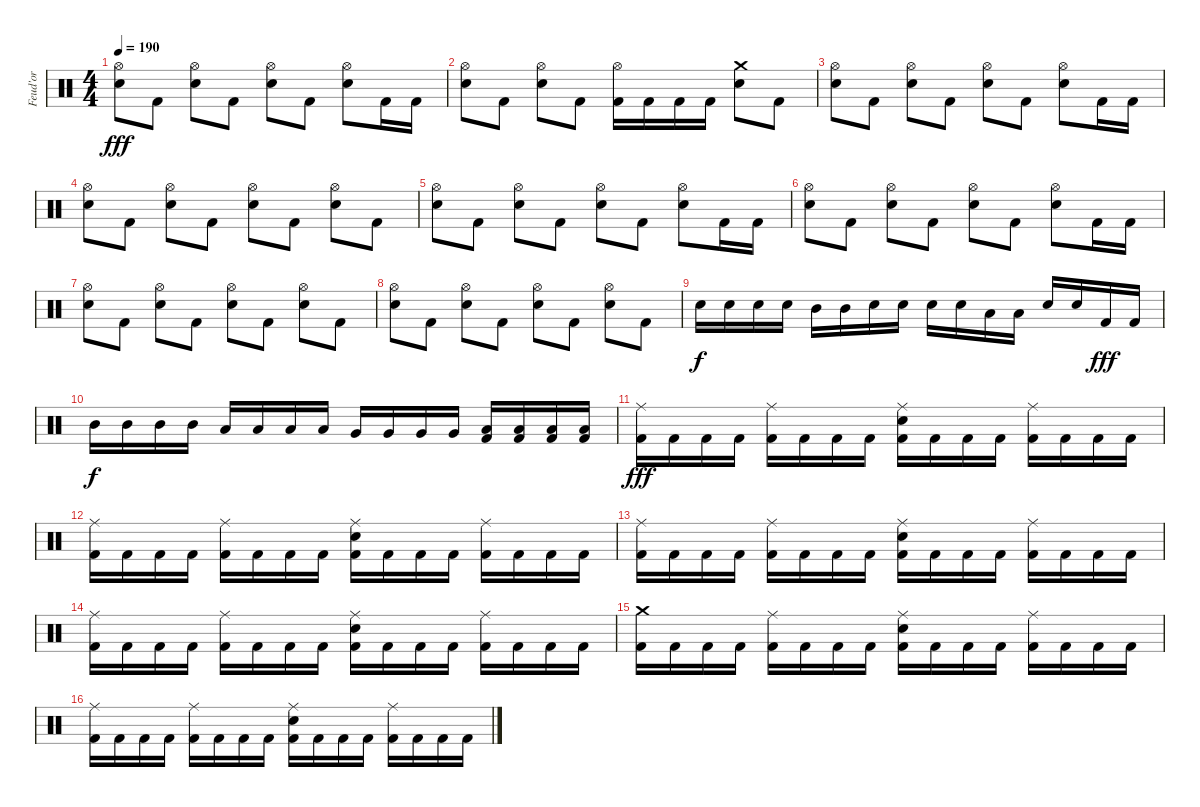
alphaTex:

\track ("Feud'or" "Feud'or") {instrument percussion}
\staff {score}
\articulation defaults
\ts (4 4)
\tempo 190
\clef neutral
\ks c
("Hi-Hat (open)" "Snare (hit) 2").8{dy fff} "Kick (hit) 2".8 ("Hi-Hat (open)" "Snare (hit) 2").8 "Kick (hit) 2".8 ("Hi-Hat (open)" "Snare (hit) 2").8 "Kick (hit) 2".8 ("Hi-Hat (open)" "Snare (hit) 2").8 "Kick (hit) 2".16 "Kick (hit) 2".16 |
("Hi-Hat (open)" "Snare (hit) 2").8 "Kick (hit) 2".8 ("Hi-Hat (open)" "Snare (hit) 2").8 "Kick (hit) 2".8 ("Hi-Hat (open)" "Kick (hit) 2").16 "Kick (hit) 2".16 "Kick (hit) 2".16 "Kick (hit) 2".16 ("Crash medium (hit)" "Snare (hit) 2").8 "Kick (hit) 2".8 |
("Hi-Hat (open)" "Snare (hit) 2").8 "Kick (hit) 2".8 ("Hi-Hat (open)" "Snare (hit) 2").8 "Kick (hit) 2".8 ("Hi-Hat (open)" "Snare (hit) 2").8 "Kick (hit) 2".8 ("Hi-Hat (open)" "Snare (hit) 2").8 "Kick (hit) 2".16 "Kick (hit) 2".16 |
("Hi-Hat (open)" "Snare (hit) 2").8 "Kick (hit) 2".8 ("Hi-Hat (open)" "Snare (hit) 2").8 "Kick (hit) 2".8 ("Hi-Hat (open)" "Snare (hit) 2").8 "Kick (hit) 2".8 ("Hi-Hat (open)" "Snare (hit) 2").8 "Kick (hit) 2".8 |
("Hi-Hat (open)" "Snare (hit) 2").8 "Kick (hit) 2".8 ("Hi-Hat (open)" "Snare (hit) 2").8 "Kick (hit) 2".8 ("Hi-Hat (open)" "Snare (hit) 2").8 "Kick (hit) 2".8 ("Hi-Hat (open)" "Snare (hit) 2").8 "Kick (hit) 2".16 "Kick (hit) 2".16 |
("Hi-Hat (open)" "Snare (hit) 2").8 "Kick (hit) 2".8 ("Hi-Hat (open)" "Snare (hit) 2").8 "Kick (hit) 2".8 ("Hi-Hat (open)" "Snare (hit) 2").8 "Kick (hit) 2".8 ("Hi-Hat (open)" "Snare (hit) 2").8 "Kick (hit) 2".16 "Kick (hit) 2".16 |
("Hi-Hat (open)" "Snare (hit) 2").8 "Kick (hit) 2".8 ("Hi-Hat (open)" "Snare (hit) 2").8 "Kick (hit) 2".8 ("Hi-Hat (open)" "Snare (hit) 2").8 "Kick (hit) 2".8 ("Hi-Hat (open)" "Snare (hit) 2").8 "Kick (hit) 2".8 |
("Hi-Hat (open)" "Snare (hit) 2").8 "Kick (hit) 2".8 ("Hi-Hat (open)" "Snare (hit) 2").8 "Kick (hit) 2".8 ("Hi-Hat (open)" "Snare (hit) 2").8 "Kick (hit) 2".8 ("Hi-Hat (open)" "Snare (hit) 2").8 "Kick (hit) 2".8 |
"Snare (hit) 2".16{dy f} "Snare (hit) 2".16 "Snare (hit) 2".16 "Snare (hit) 2".16 "Mid Tom (hit)".16 "Mid Tom (hit)".16 "Snare (hit) 2".16 "Snare (hit) 2".16 "Snare (hit) 2".16 "Snare (hit) 2".16 "Low Tom (hit)".16 "Low Tom (hit)".16 "Snare (hit) 2".16 "Snare (hit) 2".16 "Kick (hit) 2".16{dy fff} "Kick (hit) 2".16 |
"Mid Tom (hit)".16{dy f} "Mid Tom (hit)".16 "Mid Tom (hit)".16 "Mid Tom (hit)".16 "Low Tom (hit)".16 "Low Tom (hit)".16 "Low Tom (hit)".16 "Low Tom (hit)".16 "Very Low Tom (hit)".16 "Very Low Tom (hit)".16 "Very Low Tom (hit)".16 "Very Low Tom (hit)".16 ("Low Floor Tom (hit)" "Kick (hit) 2").16 ("Low Floor Tom (hit)" "Kick (hit) 2").16 ("Low Floor Tom (hit)" "Kick (hit) 2").16 ("Low Floor Tom (hit)" "Kick (hit) 2").16 |
("Ride (middle)" "Kick (hit) 2").16{dy fff} "Kick (hit) 2".16 "Kick (hit) 2".16 "Kick (hit) 2".16 ("Ride (middle)" "Kick (hit) 2").16 "Kick (hit) 2".16 "Kick (hit) 2".16 "Kick (hit) 2".16 ("Ride (middle)" "Snare (hit) 2" "Kick (hit) 2").16 "Kick (hit) 2".16 "Kick (hit) 2".16 "Kick (hit) 2".16 ("Ride (middle)" "Kick (hit) 2").16 "Kick (hit) 2".16 "Kick (hit) 2".16 "Kick (hit) 2".16 |
("Ride (middle)" "Kick (hit) 2").16 "Kick (hit) 2".16 "Kick (hit) 2".16 "Kick (hit) 2".16 ("Ride (middle)" "Kick (hit) 2").16 "Kick (hit) 2".16 "Kick (hit) 2".16 "Kick (hit) 2".16 ("Ride (middle)" "Snare (hit) 2" "Kick (hit) 2").16 "Kick (hit) 2".16 "Kick (hit) 2".16 "Kick (hit) 2".16 ("Ride (middle)" "Kick (hit) 2").16 "Kick (hit) 2".16 "Kick (hit) 2".16 "Kick (hit) 2".16 |
("Ride (middle)" "Kick (hit) 2").16 "Kick (hit) 2".16 "Kick (hit) 2".16 "Kick (hit) 2".16 ("Ride (middle)" "Kick (hit) 2").16 "Kick (hit) 2".16 "Kick (hit) 2".16 "Kick (hit) 2".16 ("Ride (middle)" "Snare (hit) 2" "Kick (hit) 2").16 "Kick (hit) 2".16 "Kick (hit) 2".16 "Kick (hit) 2".16 ("Ride (middle)" "Kick (hit) 2").16 "Kick (hit) 2".16 "Kick (hit) 2".16 "Kick (hit) 2".16 |
("Ride (middle)" "Kick (hit) 2").16 "Kick (hit) 2".16 "Kick (hit) 2".16 "Kick (hit) 2".16 ("Ride (middle)" "Kick (hit) 2").16 "Kick (hit) 2".16 "Kick (hit) 2".16 "Kick (hit) 2".16 ("Ride (middle)" "Snare (hit) 2" "Kick (hit) 2").16 "Kick (hit) 2".16 "Kick (hit) 2".16 "Kick (hit) 2".16 ("Ride (middle)" "Kick (hit) 2").16 "Kick (hit) 2".16 "Kick (hit) 2".16 "Kick (hit) 2".16 |
("Crash medium (hit)" "Kick (hit) 2").16 "Kick (hit) 2".16 "Kick (hit) 2".16 "Kick (hit) 2".16 ("Ride (middle)" "Kick (hit) 2").16 "Kick (hit) 2".16 "Kick (hit) 2".16 "Kick (hit) 2".16 ("Ride (middle)" "Snare (hit) 2" "Kick (hit) 2").16 "Kick (hit) 2".16 "Kick (hit) 2".16 "Kick (hit) 2".16 ("Ride (middle)" "Kick (hit) 2").16 "Kick (hit) 2".16 "Kick (hit) 2".16 "Kick (hit) 2".16 |
("Ride (middle)" "Kick (hit) 2").16 "Kick (hit) 2".16 "Kick (hit) 2".16 "Kick (hit) 2".16 ("Ride (middle)" "Kick (hit) 2").16 "Kick (hit) 2".16 "Kick (hit) 2".16 "Kick (hit) 2".16 ("Ride (middle)" "Snare (hit) 2" "Kick (hit) 2").16 "Kick (hit) 2".16 "Kick (hit) 2".16 "Kick (hit) 2".16 ("Ride (middle)" "Kick (hit) 2").16 "Kick (hit) 2".16 "Kick (hit) 2".16 "Kick (hit) 2".16
